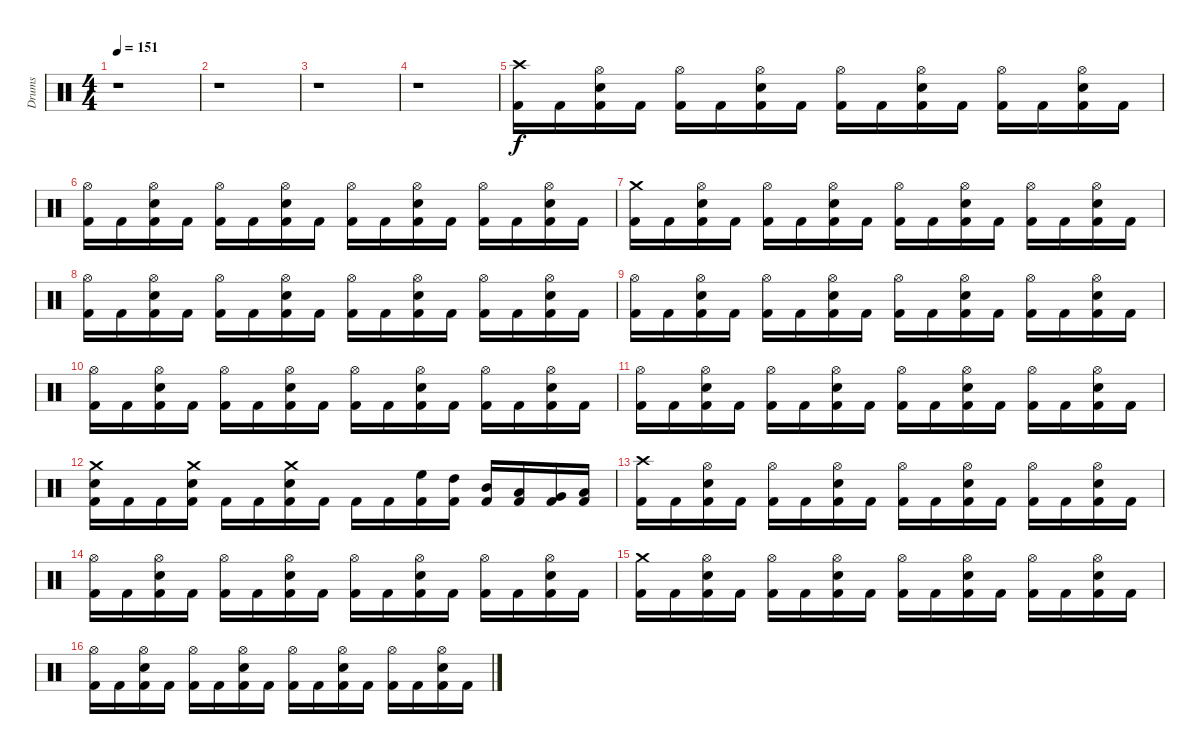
\track ("Drums" "Drums") {instrument percussion}
\staff {score}
\articulation defaults
\ts (4 4)
\tempo 151
\clef neutral
\ks c
r.1{dy f} |
r.1 |
r.1 |
r.1 |
\section ("" "")
("Kick (hit) 2" "Crash high (hit)").16 "Kick (hit) 2".16 ("Kick (hit) 2" "Snare (hit) 2" "Hi-Hat (open)").16 "Kick (hit) 2".16 ("Kick (hit) 2" "Hi-Hat (open)").16 "Kick (hit) 2".16 ("Kick (hit) 2" "Snare (hit) 2" "Hi-Hat (open)").16 "Kick (hit) 2".16 ("Kick (hit) 2" "Hi-Hat (open)").16 "Kick (hit) 2".16 ("Kick (hit) 2" "Snare (hit) 2" "Hi-Hat (open)").16 "Kick (hit) 2".16 ("Kick (hit) 2" "Hi-Hat (open)").16 "Kick (hit) 2".16 ("Kick (hit) 2" "Snare (hit) 2" "Hi-Hat (open)").16 "Kick (hit) 2".16 |
("Kick (hit) 2" "Hi-Hat (open)").16 "Kick (hit) 2".16 ("Kick (hit) 2" "Snare (hit) 2" "Hi-Hat (open)").16 "Kick (hit) 2".16 ("Kick (hit) 2" "Hi-Hat (open)").16 "Kick (hit) 2".16 ("Kick (hit) 2" "Snare (hit) 2" "Hi-Hat (open)").16 "Kick (hit) 2".16 ("Kick (hit) 2" "Hi-Hat (open)").16 "Kick (hit) 2".16 ("Kick (hit) 2" "Snare (hit) 2" "Hi-Hat (open)").16 "Kick (hit) 2".16 ("Kick (hit) 2" "Hi-Hat (open)").16 "Kick (hit) 2".16 ("Kick (hit) 2" "Snare (hit) 2" "Hi-Hat (open)").16 "Kick (hit) 2".16 |
("Kick (hit) 2" "Crash medium (hit)").16 "Kick (hit) 2".16 ("Kick (hit) 2" "Snare (hit) 2" "Hi-Hat (open)").16 "Kick (hit) 2".16 ("Kick (hit) 2" "Hi-Hat (open)").16 "Kick (hit) 2".16 ("Kick (hit) 2" "Snare (hit) 2" "Hi-Hat (open)").16 "Kick (hit) 2".16 ("Kick (hit) 2" "Hi-Hat (open)").16 "Kick (hit) 2".16 ("Kick (hit) 2" "Snare (hit) 2" "Hi-Hat (open)").16 "Kick (hit) 2".16 ("Kick (hit) 2" "Hi-Hat (open)").16 "Kick (hit) 2".16 ("Kick (hit) 2" "Snare (hit) 2" "Hi-Hat (open)").16 "Kick (hit) 2".16 |
("Kick (hit) 2" "Hi-Hat (open)").16 "Kick (hit) 2".16 ("Kick (hit) 2" "Snare (hit) 2" "Hi-Hat (open)").16 "Kick (hit) 2".16 ("Kick (hit) 2" "Hi-Hat (open)").16 "Kick (hit) 2".16 ("Kick (hit) 2" "Snare (hit) 2" "Hi-Hat (open)").16 "Kick (hit) 2".16 ("Kick (hit) 2" "Hi-Hat (open)").16 "Kick (hit) 2".16 ("Kick (hit) 2" "Snare (hit) 2" "Hi-Hat (open)").16 "Kick (hit) 2".16 ("Kick (hit) 2" "Hi-Hat (open)").16 "Kick (hit) 2".16 ("Kick (hit) 2" "Snare (hit) 2" "Hi-Hat (open)").16 "Kick (hit) 2".16 |
("Kick (hit) 2" "Hi-Hat (open)").16 "Kick (hit) 2".16 ("Kick (hit) 2" "Snare (hit) 2" "Hi-Hat (open)").16 "Kick (hit) 2".16 ("Kick (hit) 2" "Hi-Hat (open)").16 "Kick (hit) 2".16 ("Kick (hit) 2" "Snare (hit) 2" "Hi-Hat (open)").16 "Kick (hit) 2".16 ("Kick (hit) 2" "Hi-Hat (open)").16 "Kick (hit) 2".16 ("Kick (hit) 2" "Snare (hit) 2" "Hi-Hat (open)").16 "Kick (hit) 2".16 ("Kick (hit) 2" "Hi-Hat (open)").16 "Kick (hit) 2".16 ("Kick (hit) 2" "Snare (hit) 2" "Hi-Hat (open)").16 "Kick (hit) 2".16 |
("Kick (hit) 2" "Hi-Hat (open)").16 "Kick (hit) 2".16 ("Kick (hit) 2" "Snare (hit) 2" "Hi-Hat (open)").16 "Kick (hit) 2".16 ("Kick (hit) 2" "Hi-Hat (open)").16 "Kick (hit) 2".16 ("Kick (hit) 2" "Snare (hit) 2" "Hi-Hat (open)").16 "Kick (hit) 2".16 ("Kick (hit) 2" "Hi-Hat (open)").16 "Kick (hit) 2".16 ("Kick (hit) 2" "Snare (hit) 2" "Hi-Hat (open)").16 "Kick (hit) 2".16 ("Kick (hit) 2" "Hi-Hat (open)").16 "Kick (hit) 2".16 ("Kick (hit) 2" "Snare (hit) 2" "Hi-Hat (open)").16 "Kick (hit) 2".16 |
("Kick (hit) 2" "Hi-Hat (open)").16 "Kick (hit) 2".16 ("Kick (hit) 2" "Snare (hit) 2" "Hi-Hat (open)").16 "Kick (hit) 2".16 ("Kick (hit) 2" "Hi-Hat (open)").16 "Kick (hit) 2".16 ("Kick (hit) 2" "Snare (hit) 2" "Hi-Hat (open)").16 "Kick (hit) 2".16 ("Kick (hit) 2" "Hi-Hat (open)").16 "Kick (hit) 2".16 ("Kick (hit) 2" "Snare (hit) 2" "Hi-Hat (open)").16 "Kick (hit) 2".16 ("Kick (hit) 2" "Hi-Hat (open)").16 "Kick (hit) 2".16 ("Kick (hit) 2" "Snare (hit) 2" "Hi-Hat (open)").16 "Kick (hit) 2".16 |
("Kick (hit) 2" "Snare (hit) 2" "Crash medium (hit)").16 "Kick (hit) 2".16 "Kick (hit) 2".16 ("Kick (hit) 2" "Snare (hit) 2" "Crash medium (hit)").16 "Kick (hit) 2".16 "Kick (hit) 2".16 ("Kick (hit) 2" "Snare (hit) 2" "Crash medium (hit)").16 "Kick (hit) 2".16 "Kick (hit) 2".16 "Kick (hit) 2".16 ("Kick (hit) 2" "High Floor Tom (hit)").16 ("Kick (hit) 2" "High Tom (hit)").16 ("Kick (hit) 2" "Mid Tom (hit)").16 ("Kick (hit) 2" "Low Tom (hit)").16 ("Kick (hit) 2" "Very Low Tom (hit)").16 ("Kick (hit) 2" "Low Floor Tom (hit)").16 |
\section ("" "")
("Kick (hit) 2" "Crash high (hit)").16 "Kick (hit) 2".16 ("Kick (hit) 2" "Snare (hit) 2" "Hi-Hat (open)").16 "Kick (hit) 2".16 ("Kick (hit) 2" "Hi-Hat (open)").16 "Kick (hit) 2".16 ("Kick (hit) 2" "Snare (hit) 2" "Hi-Hat (open)").16 "Kick (hit) 2".16 ("Kick (hit) 2" "Hi-Hat (open)").16 "Kick (hit) 2".16 ("Kick (hit) 2" "Snare (hit) 2" "Hi-Hat (open)").16 "Kick (hit) 2".16 ("Kick (hit) 2" "Hi-Hat (open)").16 "Kick (hit) 2".16 ("Kick (hit) 2" "Snare (hit) 2" "Hi-Hat (open)").16 "Kick (hit) 2".16 |
("Kick (hit) 2" "Hi-Hat (open)").16 "Kick (hit) 2".16 ("Kick (hit) 2" "Snare (hit) 2" "Hi-Hat (open)").16 "Kick (hit) 2".16 ("Kick (hit) 2" "Hi-Hat (open)").16 "Kick (hit) 2".16 ("Kick (hit) 2" "Snare (hit) 2" "Hi-Hat (open)").16 "Kick (hit) 2".16 ("Kick (hit) 2" "Hi-Hat (open)").16 "Kick (hit) 2".16 ("Kick (hit) 2" "Snare (hit) 2" "Hi-Hat (open)").16 "Kick (hit) 2".16 ("Kick (hit) 2" "Hi-Hat (open)").16 "Kick (hit) 2".16 ("Kick (hit) 2" "Snare (hit) 2" "Hi-Hat (open)").16 "Kick (hit) 2".16 |
("Kick (hit) 2" "Crash medium (hit)").16 "Kick (hit) 2".16 ("Kick (hit) 2" "Snare (hit) 2" "Hi-Hat (open)").16 "Kick (hit) 2".16 ("Kick (hit) 2" "Hi-Hat (open)").16 "Kick (hit) 2".16 ("Kick (hit) 2" "Snare (hit) 2" "Hi-Hat (open)").16 "Kick (hit) 2".16 ("Kick (hit) 2" "Hi-Hat (open)").16 "Kick (hit) 2".16 ("Kick (hit) 2" "Snare (hit) 2" "Hi-Hat (open)").16 "Kick (hit) 2".16 ("Kick (hit) 2" "Hi-Hat (open)").16 "Kick (hit) 2".16 ("Kick (hit) 2" "Snare (hit) 2" "Hi-Hat (open)").16 "Kick (hit) 2".16 |
("Kick (hit) 2" "Hi-Hat (open)").16 "Kick (hit) 2".16 ("Kick (hit) 2" "Snare (hit) 2" "Hi-Hat (open)").16 "Kick (hit) 2".16 ("Kick (hit) 2" "Hi-Hat (open)").16 "Kick (hit) 2".16 ("Kick (hit) 2" "Snare (hit) 2" "Hi-Hat (open)").16 "Kick (hit) 2".16 ("Kick (hit) 2" "Hi-Hat (open)").16 "Kick (hit) 2".16 ("Kick (hit) 2" "Snare (hit) 2" "Hi-Hat (open)").16 "Kick (hit) 2".16 ("Kick (hit) 2" "Hi-Hat (open)").16 "Kick (hit) 2".16 ("Kick (hit) 2" "Snare (hit) 2" "Hi-Hat (open)").16 "Kick (hit) 2".16
